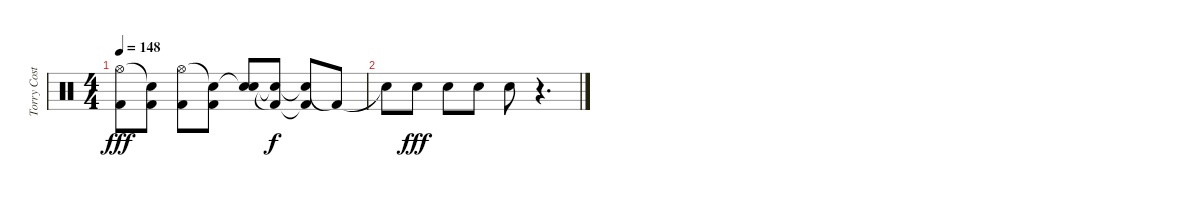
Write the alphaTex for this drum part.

\track ("Torry Costellano" "Torry Cost") {instrument percussion bank 127}
\staff {score}
\articulation defaults
\ts (4 4)
\tempo 148
\clef neutral
\ks c
("Hi-Hat (open)"{t} "Kick (hit) 2").8{dy fff} ("Snare (hit)"{t} "Kick (hit) 2").8 ("Hi-Hat (open)" "Kick (hit) 2").8 ("Snare (hit)"{t} "Kick (hit) 2").8 ("Snare (hit)"{t} "Electric Snare (hit)").8 ("Snare (hit)"{t} "Kick (hit) 2"{t}).8{dy f} ("Snare (hit)"{t} "Kick (hit) 2"{t}).8 "Kick (hit) 2"{t}.8 |
"Electric Snare (hit)"{t}.8 "Electric Snare (hit)".8{dy fff} "Electric Snare (hit)".8 "Electric Snare (hit)".8 "Electric Snare (hit)".8 r.4{d}
